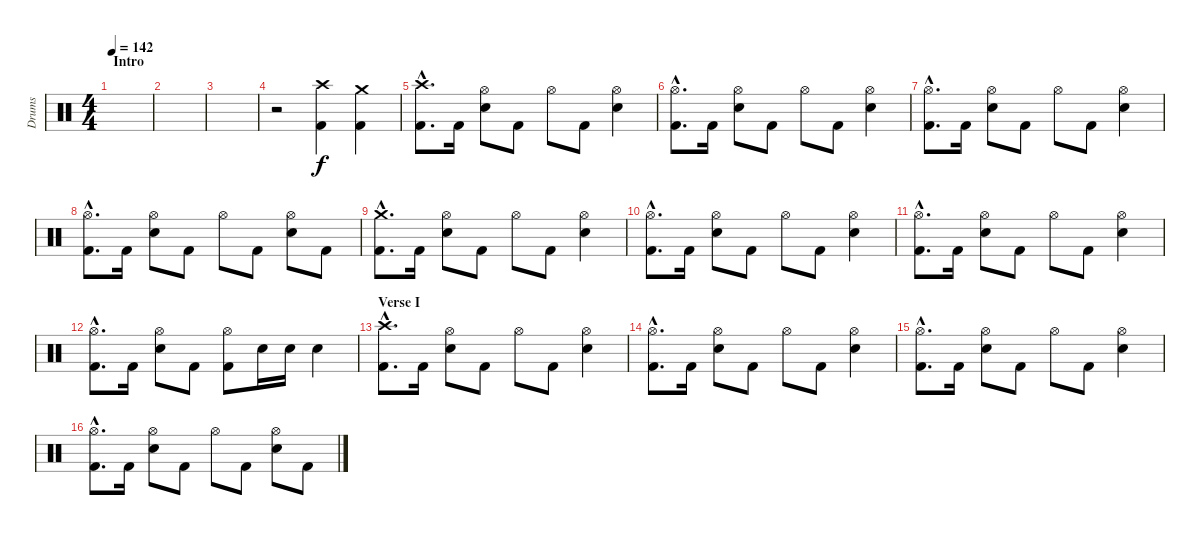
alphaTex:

\track ("Drums" "Drums") {instrument percussion}
\staff {score}
\articulation defaults
\ts (4 4)
\section ("" "Intro")
\tempo 142
\clef neutral
\ks c
|
|
|
r.2 ("Crash high (hit)" "Kick (hit) 2").4 ("Crash medium (hit)" "Kick (hit) 2").4 |
("Crash high (hit)"{hac} "Kick (hit) 2"{hac}).8{d} "Kick (hit) 2".16 ("Hi-Hat (open)" "Electric Snare (hit)").8 "Kick (hit) 2".8 "Hi-Hat (open)".8 "Kick (hit) 2".8 ("Hi-Hat (open)" "Electric Snare (hit)").4 |
("Hi-Hat (open)"{hac} "Kick (hit) 2"{hac}).8{d} "Kick (hit) 2".16 ("Hi-Hat (open)" "Electric Snare (hit)").8 "Kick (hit) 2".8 "Hi-Hat (open)".8 "Kick (hit) 2".8 ("Hi-Hat (open)" "Electric Snare (hit)").4 |
("Hi-Hat (open)"{hac} "Kick (hit) 2"{hac}).8{d} "Kick (hit) 2".16 ("Hi-Hat (open)" "Electric Snare (hit)").8 "Kick (hit) 2".8 "Hi-Hat (open)".8 "Kick (hit) 2".8 ("Hi-Hat (open)" "Electric Snare (hit)").4 |
("Hi-Hat (open)"{hac} "Kick (hit) 2"{hac}).8{d} "Kick (hit) 2".16 ("Hi-Hat (open)" "Electric Snare (hit)").8 "Kick (hit) 2".8 "Hi-Hat (open)".8 "Kick (hit) 2".8 ("Hi-Hat (open)" "Electric Snare (hit)").8 "Kick (hit) 2".8 |
("Crash medium (hit)"{hac} "Kick (hit) 2"{hac}).8{d} "Kick (hit) 2".16 ("Hi-Hat (open)" "Electric Snare (hit)").8 "Kick (hit) 2".8 "Hi-Hat (open)".8 "Kick (hit) 2".8 ("Hi-Hat (open)" "Electric Snare (hit)").4 |
("Hi-Hat (open)"{hac} "Kick (hit) 2"{hac}).8{d} "Kick (hit) 2".16 ("Hi-Hat (open)" "Electric Snare (hit)").8 "Kick (hit) 2".8 "Hi-Hat (open)".8 "Kick (hit) 2".8 ("Hi-Hat (open)" "Electric Snare (hit)").4 |
("Hi-Hat (open)"{hac} "Kick (hit) 2"{hac}).8{d} "Kick (hit) 2".16 ("Hi-Hat (open)" "Electric Snare (hit)").8 "Kick (hit) 2".8 "Hi-Hat (open)".8 "Kick (hit) 2".8 ("Hi-Hat (open)" "Electric Snare (hit)").4 |
("Hi-Hat (open)"{hac} "Kick (hit) 2"{hac}).8{d} "Kick (hit) 2".16 ("Hi-Hat (open)" "Electric Snare (hit)").8 "Kick (hit) 2".8 ("Hi-Hat (open)" "Kick (hit) 2").8 "Electric Snare (hit)".16 "Electric Snare (hit)".16 "Electric Snare (hit)".4 |
\section ("" "Verse I")
("Crash high (hit)"{hac} "Kick (hit) 2"{hac}).8{d} "Kick (hit) 2".16 ("Hi-Hat (open)" "Electric Snare (hit)").8 "Kick (hit) 2".8 "Hi-Hat (open)".8 "Kick (hit) 2".8 ("Hi-Hat (open)" "Electric Snare (hit)").4 |
("Hi-Hat (open)"{hac} "Kick (hit) 2"{hac}).8{d} "Kick (hit) 2".16 ("Hi-Hat (open)" "Electric Snare (hit)").8 "Kick (hit) 2".8 "Hi-Hat (open)".8 "Kick (hit) 2".8 ("Hi-Hat (open)" "Electric Snare (hit)").4 |
("Hi-Hat (open)"{hac} "Kick (hit) 2"{hac}).8{d} "Kick (hit) 2".16 ("Hi-Hat (open)" "Electric Snare (hit)").8 "Kick (hit) 2".8 "Hi-Hat (open)".8 "Kick (hit) 2".8 ("Hi-Hat (open)" "Electric Snare (hit)").4 |
("Hi-Hat (open)"{hac} "Kick (hit) 2"{hac}).8{d} "Kick (hit) 2".16 ("Hi-Hat (open)" "Electric Snare (hit)").8 "Kick (hit) 2".8 "Hi-Hat (open)".8 "Kick (hit) 2".8 ("Hi-Hat (open)" "Electric Snare (hit)").8 "Kick (hit) 2".8
